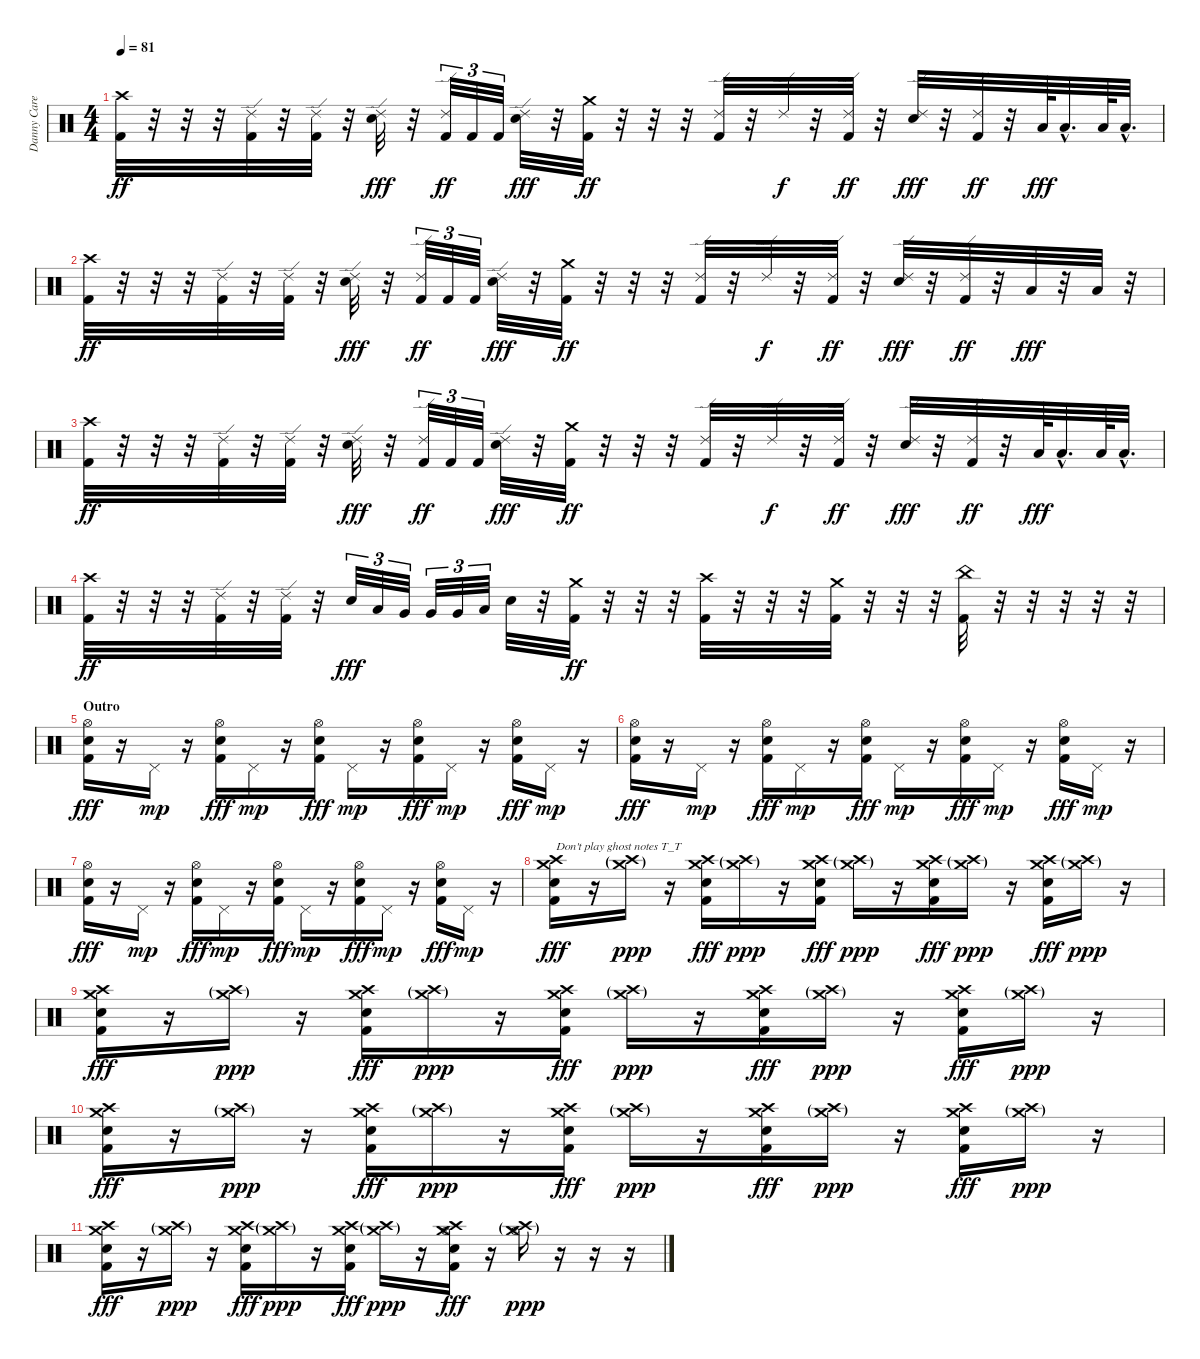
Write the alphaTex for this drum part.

\track ("Danny Carey" "Danny Care") {instrument percussion}
\staff {score}
\articulation defaults
\ts (4 4)
\tempo 81
\clef neutral
\ks c
("Crash high (hit)" "Kick (hit) 2").32{dy ff} r.32 r.32 r.32 ("Ride (edge) 2" "Kick (hit) 2").32 r.32 ("Ride (edge) 2" "Kick (hit) 2").32 r.32 ("Ride (edge) 2" "Electric Snare (hit)").32{dy fff} r.32 ("Ride (edge) 2" "Kick (hit) 2").32{tu (3 2) dy ff} "Kick (hit) 2".32{tu (3 2)} "Kick (hit) 2".32{tu (3 2)} ("Ride (edge) 2" "Electric Snare (hit)").32{dy fff} r.32 ("Crash medium (hit)" "Kick (hit) 2").32{dy ff} r.32 r.32 r.32 ("Ride (edge) 2" "Kick (hit) 2").32 r.32 "Ride (edge) 2".32{dy f} r.32 ("Ride (edge) 2" "Kick (hit) 2").32{dy ff} r.32 ("Ride (edge) 2" "Electric Snare (hit)").32{dy fff} r.32 ("Ride (edge) 2" "Kick (hit) 2").32{dy ff} r.32 "Low Floor Tom (hit)".64{dy fff} "Low Floor Tom (hit)"{hac}.32{d} "Low Floor Tom (hit)".64 "Low Floor Tom (hit)"{hac}.32{d} |
("Crash high (hit)" "Kick (hit) 2").32{dy ff} r.32 r.32 r.32 ("Ride (edge) 2" "Kick (hit) 2").32 r.32 ("Ride (edge) 2" "Kick (hit) 2").32 r.32 ("Ride (edge) 2" "Electric Snare (hit)").32{dy fff} r.32 ("Ride (edge) 2" "Kick (hit) 2").32{tu (3 2) dy ff} "Kick (hit) 2".32{tu (3 2)} "Kick (hit) 2".32{tu (3 2)} ("Ride (edge) 2" "Electric Snare (hit)").32{dy fff} r.32 ("Crash medium (hit)" "Kick (hit) 2").32{dy ff} r.32 r.32 r.32 ("Ride (edge) 2" "Kick (hit) 2").32 r.32 "Ride (edge) 2".32{dy f} r.32 ("Ride (edge) 2" "Kick (hit) 2").32{dy ff} r.32 ("Ride (edge) 2" "Electric Snare (hit)").32{dy fff} r.32 ("Ride (edge) 2" "Kick (hit) 2").32{dy ff} r.32 "Low Tom (hit)".32{dy fff} r.32 "Low Tom (hit)".32 r.32 |
("Crash high (hit)" "Kick (hit) 2").32{dy ff} r.32 r.32 r.32 ("Ride (edge) 2" "Kick (hit) 2").32 r.32 ("Ride (edge) 2" "Kick (hit) 2").32 r.32 ("Ride (edge) 2" "Electric Snare (hit)").32{dy fff} r.32 ("Ride (edge) 2" "Kick (hit) 2").32{tu (3 2) dy ff} "Kick (hit) 2".32{tu (3 2)} "Kick (hit) 2".32{tu (3 2)} ("Ride (edge) 2" "Electric Snare (hit)").32{dy fff} r.32 ("Crash medium (hit)" "Kick (hit) 2").32{dy ff} r.32 r.32 r.32 ("Ride (edge) 2" "Kick (hit) 2").32 r.32 "Ride (edge) 2".32{dy f} r.32 ("Ride (edge) 2" "Kick (hit) 2").32{dy ff} r.32 ("Ride (edge) 2" "Electric Snare (hit)").32{dy fff} r.32 ("Ride (edge) 2" "Kick (hit) 2").32{dy ff} r.32 "Low Floor Tom (hit)".64{dy fff} "Low Floor Tom (hit)"{hac}.32{d} "Low Floor Tom (hit)".64 "Low Floor Tom (hit)"{hac}.32{d} |
("Crash high (hit)" "Kick (hit) 2").32{dy ff} r.32 r.32 r.32 ("Ride (edge) 2" "Kick (hit) 2").32 r.32 ("Ride (edge) 2" "Kick (hit) 2").32 r.32 "Electric Snare (hit)".32{tu (3 2) dy fff} "Low Tom (hit)".32{tu (3 2)} "Very Low Tom (hit)".32{tu (3 2)} "Very Low Tom (hit)".32{tu (3 2)} "Very Low Tom (hit)".32{tu (3 2)} "Low Tom (hit)".32{tu (3 2)} "Electric Snare (hit)".32 r.32 ("Crash medium (hit)" "Kick (hit) 2").32{dy ff} r.32 r.32 r.32 ("Crash high (hit)" "Kick (hit) 2").32 r.32 r.32 r.32 ("Crash medium (hit)" "Kick (hit) 2").32 r.32 r.32 r.32 ("China (hit)" "Kick (hit) 2").32 r.32 r.32 r.32 r.32 r.32 |
\section ("" "Outro")
("Hi-Hat (open)" "Electric Snare (hit)" "Kick (hit) 2").16{dy fff} r.16 "Pedal Hi-Hat (hit)".16{dy mp} r.16 ("Hi-Hat (open)" "Electric Snare (hit)" "Kick (hit) 2").16{dy fff} "Pedal Hi-Hat (hit)".16{dy mp} r.16 ("Hi-Hat (open)" "Electric Snare (hit)" "Kick (hit) 2").16{dy fff} "Pedal Hi-Hat (hit)".16{dy mp} r.16 ("Hi-Hat (open)" "Electric Snare (hit)" "Kick (hit) 2").16{dy fff} "Pedal Hi-Hat (hit)".16{dy mp} r.16 ("Hi-Hat (open)" "Electric Snare (hit)" "Kick (hit) 2").16{dy fff} "Pedal Hi-Hat (hit)".16{dy mp} r.16 |
("Hi-Hat (open)" "Electric Snare (hit)" "Kick (hit) 2").16{dy fff} r.16 "Pedal Hi-Hat (hit)".16{dy mp} r.16 ("Hi-Hat (open)" "Electric Snare (hit)" "Kick (hit) 2").16{dy fff} "Pedal Hi-Hat (hit)".16{dy mp} r.16 ("Hi-Hat (open)" "Electric Snare (hit)" "Kick (hit) 2").16{dy fff} "Pedal Hi-Hat (hit)".16{dy mp} r.16 ("Hi-Hat (open)" "Electric Snare (hit)" "Kick (hit) 2").16{dy fff} "Pedal Hi-Hat (hit)".16{dy mp} r.16 ("Hi-Hat (open)" "Electric Snare (hit)" "Kick (hit) 2").16{dy fff} "Pedal Hi-Hat (hit)".16{dy mp} r.16 |
("Hi-Hat (open)" "Electric Snare (hit)" "Kick (hit) 2").16{dy fff} r.16 "Pedal Hi-Hat (hit)".16{dy mp} r.16 ("Hi-Hat (open)" "Electric Snare (hit)" "Kick (hit) 2").16{dy fff} "Pedal Hi-Hat (hit)".16{dy mp} r.16 ("Hi-Hat (open)" "Electric Snare (hit)" "Kick (hit) 2").16{dy fff} "Pedal Hi-Hat (hit)".16{dy mp} r.16 ("Hi-Hat (open)" "Electric Snare (hit)" "Kick (hit) 2").16{dy fff} "Pedal Hi-Hat (hit)".16{dy mp} r.16 ("Hi-Hat (open)" "Electric Snare (hit)" "Kick (hit) 2").16{dy fff} "Pedal Hi-Hat (hit)".16{dy mp} r.16 |
("Crash medium (hit)" "Crash high (hit)" "Electric Snare (hit)" "Kick (hit) 2").16{txt "Don't play ghost notes T_T" dy fff} r.16 ("Crash medium (hit)"{g} "Crash high (hit)"{g}).16{dy ppp} r.16 ("Crash medium (hit)" "Crash high (hit)" "Electric Snare (hit)" "Kick (hit) 2").16{dy fff} ("Crash medium (hit)"{g} "Crash high (hit)"{g}).16{dy ppp} r.16 ("Crash medium (hit)" "Crash high (hit)" "Electric Snare (hit)" "Kick (hit) 2").16{dy fff} ("Crash medium (hit)"{g} "Crash high (hit)"{g}).16{dy ppp} r.16 ("Crash medium (hit)" "Crash high (hit)" "Electric Snare (hit)" "Kick (hit) 2").16{dy fff} ("Crash medium (hit)"{g} "Crash high (hit)"{g}).16{dy ppp} r.16 ("Crash medium (hit)" "Crash high (hit)" "Electric Snare (hit)" "Kick (hit) 2").16{dy fff} ("Crash medium (hit)"{g} "Crash high (hit)"{g}).16{dy ppp} r.16 |
("Crash medium (hit)" "Crash high (hit)" "Electric Snare (hit)" "Kick (hit) 2").16{dy fff} r.16 ("Crash medium (hit)"{g} "Crash high (hit)"{g}).16{dy ppp} r.16 ("Crash medium (hit)" "Crash high (hit)" "Electric Snare (hit)" "Kick (hit) 2").16{dy fff} ("Crash medium (hit)"{g} "Crash high (hit)"{g}).16{dy ppp} r.16 ("Crash medium (hit)" "Crash high (hit)" "Electric Snare (hit)" "Kick (hit) 2").16{dy fff} ("Crash medium (hit)"{g} "Crash high (hit)"{g}).16{dy ppp} r.16 ("Crash medium (hit)" "Crash high (hit)" "Electric Snare (hit)" "Kick (hit) 2").16{dy fff} ("Crash medium (hit)"{g} "Crash high (hit)"{g}).16{dy ppp} r.16 ("Crash medium (hit)" "Crash high (hit)" "Electric Snare (hit)" "Kick (hit) 2").16{dy fff} ("Crash medium (hit)"{g} "Crash high (hit)"{g}).16{dy ppp} r.16 |
("Crash medium (hit)" "Crash high (hit)" "Electric Snare (hit)" "Kick (hit) 2").16{dy fff} r.16 ("Crash medium (hit)"{g} "Crash high (hit)"{g}).16{dy ppp} r.16 ("Crash medium (hit)" "Crash high (hit)" "Electric Snare (hit)" "Kick (hit) 2").16{dy fff} ("Crash medium (hit)"{g} "Crash high (hit)"{g}).16{dy ppp} r.16 ("Crash medium (hit)" "Crash high (hit)" "Electric Snare (hit)" "Kick (hit) 2").16{dy fff} ("Crash medium (hit)"{g} "Crash high (hit)"{g}).16{dy ppp} r.16 ("Crash medium (hit)" "Crash high (hit)" "Electric Snare (hit)" "Kick (hit) 2").16{dy fff} ("Crash medium (hit)"{g} "Crash high (hit)"{g}).16{dy ppp} r.16 ("Crash medium (hit)" "Crash high (hit)" "Electric Snare (hit)" "Kick (hit) 2").16{dy fff} ("Crash medium (hit)"{g} "Crash high (hit)"{g}).16{dy ppp} r.16 |
("Crash medium (hit)" "Crash high (hit)" "Electric Snare (hit)" "Kick (hit) 2").16{dy fff} r.16 ("Crash medium (hit)"{g} "Crash high (hit)"{g}).16{dy ppp} r.16 ("Crash medium (hit)" "Crash high (hit)" "Electric Snare (hit)" "Kick (hit) 2").16{dy fff} ("Crash medium (hit)"{g} "Crash high (hit)"{g}).16{dy ppp} r.16 ("Crash medium (hit)" "Crash high (hit)" "Electric Snare (hit)" "Kick (hit) 2").16{dy fff} ("Crash medium (hit)"{g} "Crash high (hit)"{g}).16{dy ppp} r.16 ("Crash medium (hit)" "Crash high (hit)" "Hi-Hat (open)" "Electric Snare (hit)" "Kick (hit) 2").16{dy fff} r.16 ("Crash medium (hit)"{g} "Crash high (hit)"{g} "Hi-Hat (open)"{g}).16{dy ppp} r.16 r.16 r.16
